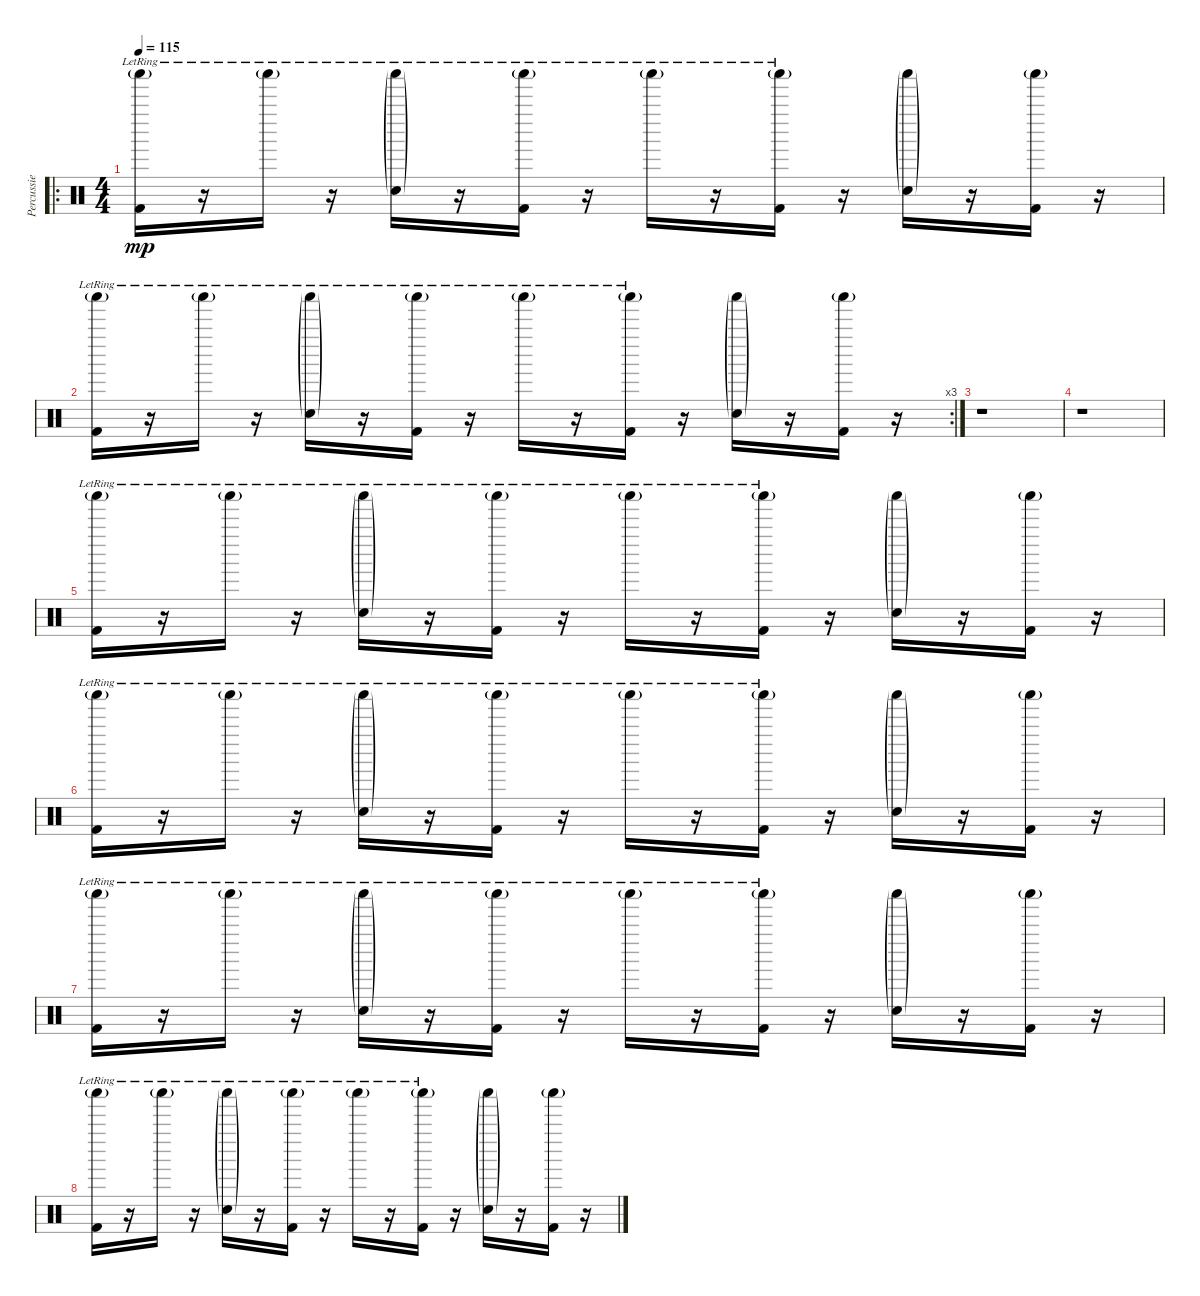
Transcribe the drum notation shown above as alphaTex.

\track ("Percussie" "Percussie") {instrument percussion}
\staff {score}
\articulation defaults
\ro
\ts (4 4)
\tempo 115
\clef neutral
\ks c
("Shaker (hit)"{g lr} "Kick (hit) 2").16{dy mp} r.16 "Shaker (hit)"{g lr}.16 r.16 ("Shaker (hit)"{g lr} "Snare (hit) 2"{g}).16 r.16 ("Shaker (hit)"{g lr} "Kick (hit) 2").16 r.16 "Shaker (hit)"{g lr}.16 r.16 ("Shaker (hit)"{g lr} "Kick (hit) 2").16 r.16 ("Shaker (hit)"{g} "Snare (hit) 2"{g}).16 r.16 ("Shaker (hit)"{g} "Kick (hit) 2").16 r.16 |
\rc 3
("Shaker (hit)"{g lr} "Kick (hit) 2").16 r.16 "Shaker (hit)"{g lr}.16 r.16 ("Shaker (hit)"{g lr} "Snare (hit) 2"{g}).16 r.16 ("Shaker (hit)"{g lr} "Kick (hit) 2").16 r.16 "Shaker (hit)"{g lr}.16 r.16 ("Shaker (hit)"{g lr} "Kick (hit) 2").16 r.16 ("Shaker (hit)"{g} "Snare (hit) 2"{g}).16 r.16 ("Shaker (hit)"{g} "Kick (hit) 2").16 r.16 |
r.1 |
r.1 |
("Shaker (hit)"{g lr} "Kick (hit) 2").16 r.16 "Shaker (hit)"{g lr}.16 r.16 ("Shaker (hit)"{g lr} "Snare (hit) 2"{g}).16 r.16 ("Shaker (hit)"{g lr} "Kick (hit) 2").16 r.16 "Shaker (hit)"{g lr}.16 r.16 ("Shaker (hit)"{g lr} "Kick (hit) 2").16 r.16 ("Shaker (hit)"{g} "Snare (hit) 2"{g}).16 r.16 ("Shaker (hit)"{g} "Kick (hit) 2").16 r.16 |
("Shaker (hit)"{g lr} "Kick (hit) 2").16 r.16 "Shaker (hit)"{g lr}.16 r.16 ("Shaker (hit)"{g lr} "Snare (hit) 2"{g}).16 r.16 ("Shaker (hit)"{g lr} "Kick (hit) 2").16 r.16 "Shaker (hit)"{g lr}.16 r.16 ("Shaker (hit)"{g lr} "Kick (hit) 2").16 r.16 ("Shaker (hit)"{g} "Snare (hit) 2"{g}).16 r.16 ("Shaker (hit)"{g} "Kick (hit) 2").16 r.16 |
("Shaker (hit)"{g lr} "Kick (hit) 2").16 r.16 "Shaker (hit)"{g lr}.16 r.16 ("Shaker (hit)"{g lr} "Snare (hit) 2"{g}).16 r.16 ("Shaker (hit)"{g lr} "Kick (hit) 2").16 r.16 "Shaker (hit)"{g lr}.16 r.16 ("Shaker (hit)"{g lr} "Kick (hit) 2").16 r.16 ("Shaker (hit)"{g} "Snare (hit) 2"{g}).16 r.16 ("Shaker (hit)"{g} "Kick (hit) 2").16 r.16 |
("Shaker (hit)"{g lr} "Kick (hit) 2").16 r.16 "Shaker (hit)"{g lr}.16 r.16 ("Shaker (hit)"{g lr} "Snare (hit) 2"{g}).16 r.16 ("Shaker (hit)"{g lr} "Kick (hit) 2").16 r.16 "Shaker (hit)"{g lr}.16 r.16 ("Shaker (hit)"{g lr} "Kick (hit) 2").16 r.16 ("Shaker (hit)"{g} "Snare (hit) 2"{g}).16 r.16 ("Shaker (hit)"{g} "Kick (hit) 2").16 r.16
